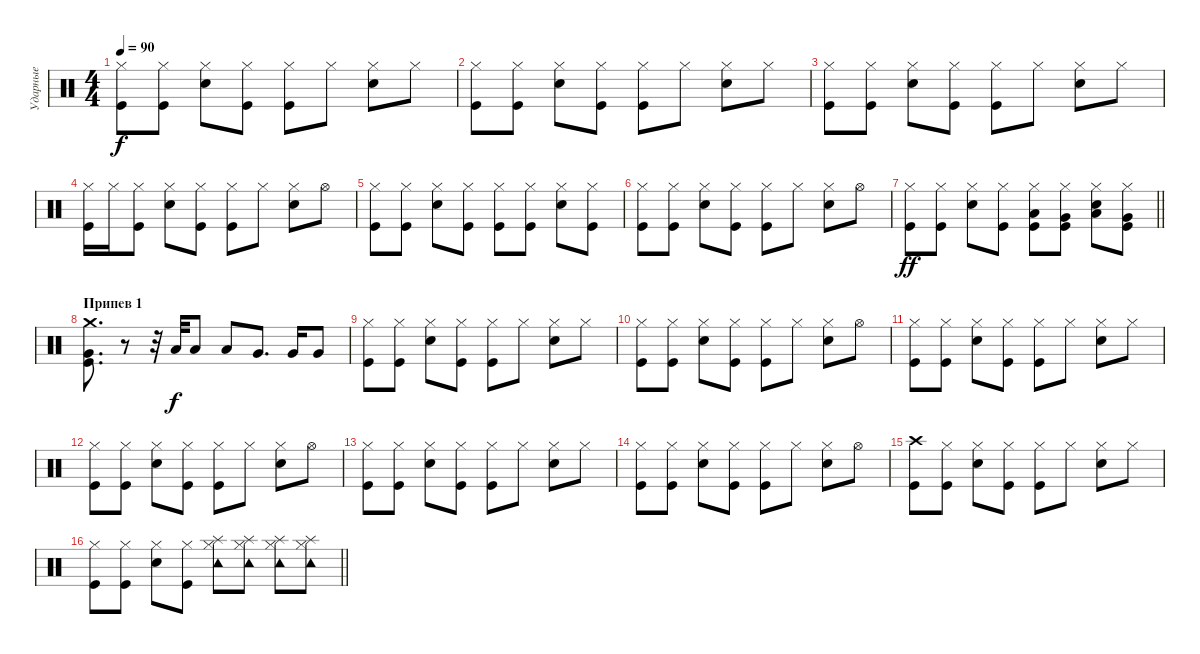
\track ("Ударные" "Ударные") {instrument percussion}
\staff {score}
\articulation defaults
\ts (4 4)
\tempo 90
\clef neutral
\ks c
("Hi-Hat (closed)" "Kick (hit)").8{dy f} ("Hi-Hat (closed)" "Kick (hit)").8 ("Hi-Hat (closed)" "Snare (hit) 2").8 ("Hi-Hat (closed)" "Kick (hit)").8 ("Hi-Hat (closed)" "Kick (hit)").8 "Hi-Hat (closed)".8 ("Hi-Hat (closed)" "Snare (hit) 2").8 "Hi-Hat (closed)".8 |
("Hi-Hat (closed)" "Kick (hit)").8 ("Hi-Hat (closed)" "Kick (hit)").8 ("Hi-Hat (closed)" "Snare (hit) 2").8 ("Hi-Hat (closed)" "Kick (hit)").8 ("Hi-Hat (closed)" "Kick (hit)").8 "Hi-Hat (closed)".8 ("Hi-Hat (closed)" "Snare (hit) 2").8 "Hi-Hat (closed)".8 |
("Hi-Hat (closed)" "Kick (hit)").8 ("Hi-Hat (closed)" "Kick (hit)").8 ("Hi-Hat (closed)" "Snare (hit) 2").8 ("Hi-Hat (closed)" "Kick (hit)").8 ("Hi-Hat (closed)" "Kick (hit)").8 "Hi-Hat (closed)".8 ("Hi-Hat (closed)" "Snare (hit) 2").8 "Hi-Hat (closed)".8 |
("Hi-Hat (closed)" "Kick (hit)").16 "Hi-Hat (closed)".16 ("Hi-Hat (closed)" "Kick (hit)").8 ("Hi-Hat (closed)" "Snare (hit) 2").8 ("Hi-Hat (closed)" "Kick (hit)").8 ("Hi-Hat (closed)" "Kick (hit)").8 "Hi-Hat (closed)".8 ("Hi-Hat (closed)" "Snare (hit) 2").8 "Hi-Hat (open)".8 |
("Hi-Hat (closed)" "Kick (hit)").8 ("Hi-Hat (closed)" "Kick (hit)").8 ("Hi-Hat (closed)" "Snare (hit) 2").8 ("Hi-Hat (closed)" "Kick (hit)").8 ("Hi-Hat (closed)" "Kick (hit)").8 ("Hi-Hat (closed)" "Kick (hit)").8 ("Hi-Hat (closed)" "Snare (hit) 2").8 ("Hi-Hat (closed)" "Kick (hit)").8 |
("Hi-Hat (closed)" "Kick (hit)").8 ("Hi-Hat (closed)" "Kick (hit)").8 ("Hi-Hat (closed)" "Snare (hit) 2").8 ("Hi-Hat (closed)" "Kick (hit)").8 ("Hi-Hat (closed)" "Kick (hit)").8 "Hi-Hat (closed)".8 ("Hi-Hat (closed)" "Snare (hit) 2").8 "Hi-Hat (open)".8 |
\barLineRight lightlight
("Hi-Hat (closed)" "Kick (hit)").8{dy ff} ("Hi-Hat (closed)" "Kick (hit)").8 ("Hi-Hat (closed)" "Snare (hit) 2").8 ("Hi-Hat (closed)" "Kick (hit)").8 ("Hi-Hat (closed)" "Kick (hit)" "Low Floor Tom (hit)").8 ("Hi-Hat (closed)" "Kick (hit)" "Very Low Tom (hit)").8 ("Hi-Hat (closed)" "Snare (hit) 2" "Low Tom (hit)").8 ("Hi-Hat (closed)" "Kick (hit)" "Very Low Tom (hit)").8 |
\section ("" "Припев 1")
("Crash medium (hit)" "Kick (hit)" "Very Low Tom (hit)").8{d} r.8 r.32 "Low Tom (hit)".32{dy f} "Low Tom (hit)".8 "Low Tom (hit)".8 "Very Low Tom (hit)".8{d} "Very Low Tom (hit)".16 "Very Low Tom (hit)".8 |
("Hi-Hat (closed)" "Kick (hit)").8 ("Hi-Hat (closed)" "Kick (hit)").8 ("Hi-Hat (closed)" "Snare (hit) 2").8 ("Hi-Hat (closed)" "Kick (hit)").8 ("Hi-Hat (closed)" "Kick (hit)").8 "Hi-Hat (closed)".8 ("Hi-Hat (closed)" "Snare (hit) 2").8 "Hi-Hat (closed)".8 |
("Hi-Hat (closed)" "Kick (hit)").8 ("Hi-Hat (closed)" "Kick (hit)").8 ("Hi-Hat (closed)" "Snare (hit) 2").8 ("Hi-Hat (closed)" "Kick (hit)").8 ("Hi-Hat (closed)" "Kick (hit)").8 "Hi-Hat (closed)".8 ("Hi-Hat (closed)" "Snare (hit) 2").8 "Hi-Hat (open)".8 |
("Hi-Hat (closed)" "Kick (hit)").8 ("Hi-Hat (closed)" "Kick (hit)").8 ("Hi-Hat (closed)" "Snare (hit) 2").8 ("Hi-Hat (closed)" "Kick (hit)").8 ("Hi-Hat (closed)" "Kick (hit)").8 "Hi-Hat (closed)".8 ("Hi-Hat (closed)" "Snare (hit) 2").8 "Hi-Hat (closed)".8 |
("Hi-Hat (closed)" "Kick (hit)").8 ("Hi-Hat (closed)" "Kick (hit)").8 ("Hi-Hat (closed)" "Snare (hit) 2").8 ("Hi-Hat (closed)" "Kick (hit)").8 ("Hi-Hat (closed)" "Kick (hit)").8 "Hi-Hat (closed)".8 ("Hi-Hat (closed)" "Snare (hit) 2").8 "Hi-Hat (open)".8 |
("Hi-Hat (closed)" "Kick (hit)").8 ("Hi-Hat (closed)" "Kick (hit)").8 ("Hi-Hat (closed)" "Snare (hit) 2").8 ("Hi-Hat (closed)" "Kick (hit)").8 ("Hi-Hat (closed)" "Kick (hit)").8 "Hi-Hat (closed)".8 ("Hi-Hat (closed)" "Snare (hit) 2").8 "Hi-Hat (closed)".8 |
("Hi-Hat (closed)" "Kick (hit)").8 ("Hi-Hat (closed)" "Kick (hit)").8 ("Hi-Hat (closed)" "Snare (hit) 2").8 ("Hi-Hat (closed)" "Kick (hit)").8 ("Hi-Hat (closed)" "Kick (hit)").8 "Hi-Hat (closed)".8 ("Hi-Hat (closed)" "Snare (hit) 2").8 "Hi-Hat (open)".8 |
("Crash high (hit)" "Kick (hit)").8 ("Hi-Hat (closed)" "Kick (hit)").8 ("Hi-Hat (closed)" "Snare (hit) 2").8 ("Hi-Hat (closed)" "Kick (hit)").8 ("Hi-Hat (closed)" "Kick (hit)").8 "Hi-Hat (closed)".8 ("Hi-Hat (closed)" "Snare (hit) 2").8 "Hi-Hat (closed)".8 |
\barLineRight lightlight
("Hi-Hat (closed)" "Kick (hit)").8 ("Hi-Hat (closed)" "Kick (hit)").8 ("Hi-Hat (closed)" "Snare (hit) 2").8 ("Hi-Hat (closed)" "Kick (hit)").8 ("Splash (hit)" "Tambourine (hit)" "Hi-Hat (closed)").8 ("Splash (hit)" "Hi-Hat (closed)" "Tambourine (hit)").8 ("Splash (hit)" "Hi-Hat (closed)" "Tambourine (hit)").8 ("Splash (hit)" "Hi-Hat (closed)" "Tambourine (hit)").8
